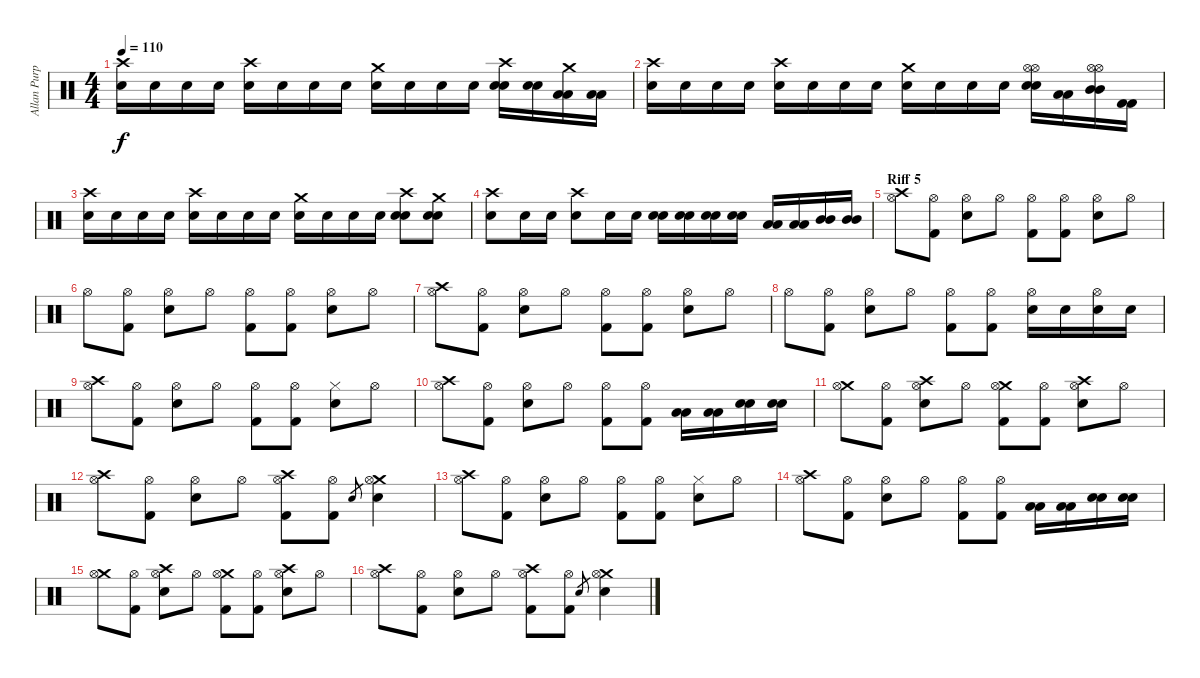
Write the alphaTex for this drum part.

\track ("Allan Purple" "Allan Purp") {instrument percussion}
\staff {score}
\articulation defaults
\ts (4 4)
\tempo 110
\clef neutral
\ks c
("Crash high (hit)" "Electric Snare (hit)").16{dy f} "Electric Snare (hit)".16 "Electric Snare (hit)".16 "Electric Snare (hit)".16 ("Crash high (hit)" "Electric Snare (hit)").16 "Electric Snare (hit)".16 "Electric Snare (hit)".16 "Electric Snare (hit)".16 ("Crash medium (hit)" "Electric Snare (hit)").16 "Electric Snare (hit)".16 "Electric Snare (hit)".16 "Electric Snare (hit)".16 ("Crash high (hit)" "Snare (hit) 2" "Snare (hit) 2").16 ("Snare (hit) 2" "Snare (hit) 2").16 ("Crash medium (hit)" "Low Tom (hit)" "Low Tom (hit)").16 ("Low Tom (hit)" "Low Tom (hit)").16 |
("Crash high (hit)" "Electric Snare (hit)").16 "Electric Snare (hit)".16 "Electric Snare (hit)".16 "Electric Snare (hit)".16 ("Crash high (hit)" "Electric Snare (hit)").16 "Electric Snare (hit)".16 "Electric Snare (hit)".16 "Electric Snare (hit)".16 ("Crash medium (hit)" "Electric Snare (hit)").16 "Electric Snare (hit)".16 "Electric Snare (hit)".16 "Electric Snare (hit)".16 ("Hi-Hat (open)" "Hi-Hat (open)" "Snare (hit) 2" "Snare (hit) 2").16 ("Low Tom (hit)" "Low Tom (hit)").16 ("Hi-Hat (open)" "Hi-Hat (open)" "Mid Tom (hit)" "Mid Tom (hit)").16 ("Kick (hit) 2" "Kick (hit) 2").16 |
("Crash high (hit)" "Electric Snare (hit)").16 "Electric Snare (hit)".16 "Electric Snare (hit)".16 "Electric Snare (hit)".16 ("Crash high (hit)" "Electric Snare (hit)").16 "Electric Snare (hit)".16 "Electric Snare (hit)".16 "Electric Snare (hit)".16 ("Crash medium (hit)" "Electric Snare (hit)").16 "Electric Snare (hit)".16 "Electric Snare (hit)".16 "Electric Snare (hit)".16 ("Crash high (hit)" "Snare (hit) 2" "Snare (hit) 2").8 ("Crash medium (hit)" "Electric Snare (hit)" "Electric Snare (hit)").8 |
("Crash high (hit)" "Electric Snare (hit)").8 "Electric Snare (hit)".16 "Electric Snare (hit)".16 ("Crash high (hit)" "Electric Snare (hit)").8 "Electric Snare (hit)".16 "Electric Snare (hit)".16 ("Electric Snare (hit)" "Electric Snare (hit)").16 ("Electric Snare (hit)" "Electric Snare (hit)").16 ("Snare (hit) 2" "Snare (hit) 2").16 ("Snare (hit) 2" "Snare (hit) 2").16 ("Low Tom (hit)" "Low Tom (hit)").16 ("Low Tom (hit)" "Low Tom (hit)").16 ("Mid Tom (hit)" "Mid Tom (hit)").16 ("Mid Tom (hit)" "Mid Tom (hit)").16 |
\section ("" "Riff 5")
("Crash high (hit)" "Hi-Hat (open)").8 ("Hi-Hat (open)" "Kick (hit) 2").8 ("Hi-Hat (open)" "Electric Snare (hit)").8 "Hi-Hat (open)".8 ("Hi-Hat (open)" "Kick (hit) 2").8 ("Hi-Hat (open)" "Kick (hit) 2").8 ("Hi-Hat (open)" "Electric Snare (hit)").8 "Hi-Hat (open)".8 |
"Hi-Hat (open)".8 ("Hi-Hat (open)" "Kick (hit) 2").8 ("Hi-Hat (open)" "Electric Snare (hit)").8 "Hi-Hat (open)".8 ("Hi-Hat (open)" "Kick (hit) 2").8 ("Hi-Hat (open)" "Kick (hit) 2").8 ("Hi-Hat (open)" "Electric Snare (hit)").8 "Hi-Hat (open)".8 |
("Crash high (hit)" "Hi-Hat (open)").8 ("Hi-Hat (open)" "Kick (hit) 2").8 ("Hi-Hat (open)" "Electric Snare (hit)").8 "Hi-Hat (open)".8 ("Hi-Hat (open)" "Kick (hit) 2").8 ("Hi-Hat (open)" "Kick (hit) 2").8 ("Hi-Hat (open)" "Electric Snare (hit)").8 "Hi-Hat (open)".8 |
"Hi-Hat (open)".8 ("Hi-Hat (open)" "Kick (hit) 2").8 ("Hi-Hat (open)" "Electric Snare (hit)").8 "Hi-Hat (open)".8 ("Hi-Hat (open)" "Kick (hit) 2").8 ("Hi-Hat (open)" "Kick (hit) 2").8 ("Hi-Hat (open)" "Electric Snare (hit)").16 "Electric Snare (hit)".16 ("Hi-Hat (open)" "Snare (hit) 2").16 "Snare (hit) 2".16 |
("Crash high (hit)" "Hi-Hat (open)").8 ("Hi-Hat (open)" "Kick (hit) 2").8 ("Hi-Hat (open)" "Electric Snare (hit)").8 "Hi-Hat (open)".8 ("Hi-Hat (open)" "Kick (hit) 2").8 ("Hi-Hat (open)" "Kick (hit) 2").8 ("Hi-Hat (closed)" "Electric Snare (hit)").8 "Hi-Hat (open)".8 |
("Crash high (hit)" "Hi-Hat (open)").8 ("Hi-Hat (open)" "Kick (hit) 2").8 ("Hi-Hat (open)" "Electric Snare (hit)").8 "Hi-Hat (open)".8 ("Hi-Hat (open)" "Kick (hit) 2").8 ("Hi-Hat (open)" "Kick (hit) 2").8 ("Low Tom (hit)" "Low Tom (hit)").16 ("Low Tom (hit)" "Low Tom (hit)").16 ("Electric Snare (hit)" "Electric Snare (hit)").16 ("Electric Snare (hit)" "Electric Snare (hit)").16 |
("Crash medium (hit)" "Hi-Hat (open)").8 ("Hi-Hat (open)" "Kick (hit) 2").8 ("Crash high (hit)" "Hi-Hat (open)" "Electric Snare (hit)").8 "Hi-Hat (open)".8 ("Crash medium (hit)" "Hi-Hat (open)" "Kick (hit) 2").8 ("Hi-Hat (open)" "Kick (hit) 2").8 ("Crash high (hit)" "Hi-Hat (open)" "Electric Snare (hit)").8 "Hi-Hat (open)".8 |
("Crash high (hit)" "Hi-Hat (open)").8 ("Hi-Hat (open)" "Kick (hit) 2").8 ("Hi-Hat (open)" "Electric Snare (hit)").8 "Hi-Hat (open)".8 ("Crash high (hit)" "Hi-Hat (open)" "Kick (hit) 2").8 ("Hi-Hat (open)" "Kick (hit) 2").8 "Electric Snare (hit)".8{gr} ("Crash medium (hit)" "Hi-Hat (open)" "Electric Snare (hit)").4 |
("Crash high (hit)" "Hi-Hat (open)").8 ("Hi-Hat (open)" "Kick (hit) 2").8 ("Hi-Hat (open)" "Electric Snare (hit)").8 "Hi-Hat (open)".8 ("Hi-Hat (open)" "Kick (hit) 2").8 ("Hi-Hat (open)" "Kick (hit) 2").8 ("Hi-Hat (closed)" "Electric Snare (hit)").8 "Hi-Hat (open)".8 |
("Crash high (hit)" "Hi-Hat (open)").8 ("Hi-Hat (open)" "Kick (hit) 2").8 ("Hi-Hat (open)" "Electric Snare (hit)").8 "Hi-Hat (open)".8 ("Hi-Hat (open)" "Kick (hit) 2").8 ("Hi-Hat (open)" "Kick (hit) 2").8 ("Low Tom (hit)" "Low Tom (hit)").16 ("Low Tom (hit)" "Low Tom (hit)").16 ("Electric Snare (hit)" "Electric Snare (hit)").16 ("Electric Snare (hit)" "Electric Snare (hit)").16 |
("Crash medium (hit)" "Hi-Hat (open)").8 ("Hi-Hat (open)" "Kick (hit) 2").8 ("Crash high (hit)" "Hi-Hat (open)" "Electric Snare (hit)").8 "Hi-Hat (open)".8 ("Crash medium (hit)" "Hi-Hat (open)" "Kick (hit) 2").8 ("Hi-Hat (open)" "Kick (hit) 2").8 ("Crash high (hit)" "Hi-Hat (open)" "Electric Snare (hit)").8 "Hi-Hat (open)".8 |
("Crash high (hit)" "Hi-Hat (open)").8 ("Hi-Hat (open)" "Kick (hit) 2").8 ("Hi-Hat (open)" "Electric Snare (hit)").8 "Hi-Hat (open)".8 ("Crash high (hit)" "Hi-Hat (open)" "Kick (hit) 2").8 ("Hi-Hat (open)" "Kick (hit) 2").8 "Electric Snare (hit)".8{gr} ("Crash medium (hit)" "Hi-Hat (open)" "Electric Snare (hit)").4
